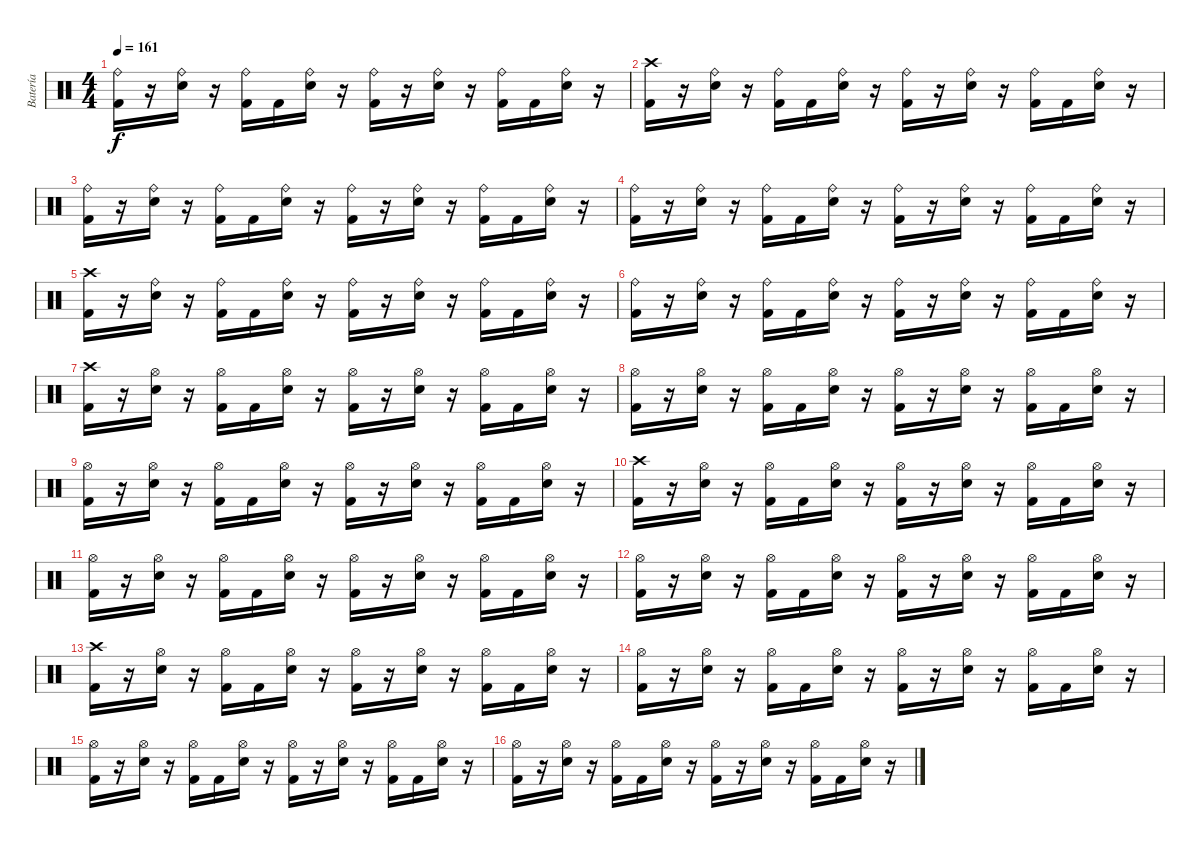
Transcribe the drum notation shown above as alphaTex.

\track ("Batería" "Batería") {instrument percussion}
\staff {score}
\articulation defaults
\ts (4 4)
\tempo 161
\clef neutral
\ks c
("Ride (bell)" "Kick (hit) 2").16{dy f} r.16 ("Ride (bell)" "Electric Snare (hit)").16 r.16 ("Ride (bell)" "Kick (hit) 2").16 "Kick (hit) 2".16 ("Ride (bell)" "Electric Snare (hit)").16 r.16 ("Ride (bell)" "Kick (hit) 2").16 r.16 ("Ride (bell)" "Electric Snare (hit)").16 r.16 ("Ride (bell)" "Kick (hit) 2").16 "Kick (hit) 2".16 ("Ride (bell)" "Electric Snare (hit)").16 r.16 |
("Crash high (hit)" "Kick (hit) 2").16 r.16 ("Ride (bell)" "Electric Snare (hit)").16 r.16 ("Ride (bell)" "Kick (hit) 2").16 "Kick (hit) 2".16 ("Ride (bell)" "Electric Snare (hit)").16 r.16 ("Ride (bell)" "Kick (hit) 2").16 r.16 ("Ride (bell)" "Electric Snare (hit)").16 r.16 ("Ride (bell)" "Kick (hit) 2").16 "Kick (hit) 2".16 ("Ride (bell)" "Electric Snare (hit)").16 r.16 |
("Ride (bell)" "Kick (hit) 2").16 r.16 ("Ride (bell)" "Electric Snare (hit)").16 r.16 ("Ride (bell)" "Kick (hit) 2").16 "Kick (hit) 2".16 ("Ride (bell)" "Electric Snare (hit)").16 r.16 ("Ride (bell)" "Kick (hit) 2").16 r.16 ("Ride (bell)" "Electric Snare (hit)").16 r.16 ("Ride (bell)" "Kick (hit) 2").16 "Kick (hit) 2".16 ("Ride (bell)" "Electric Snare (hit)").16 r.16 |
("Ride (bell)" "Kick (hit) 2").16 r.16 ("Ride (bell)" "Electric Snare (hit)").16 r.16 ("Ride (bell)" "Kick (hit) 2").16 "Kick (hit) 2".16 ("Ride (bell)" "Electric Snare (hit)").16 r.16 ("Ride (bell)" "Kick (hit) 2").16 r.16 ("Ride (bell)" "Electric Snare (hit)").16 r.16 ("Ride (bell)" "Kick (hit) 2").16 "Kick (hit) 2".16 ("Ride (bell)" "Electric Snare (hit)").16 r.16 |
("Crash high (hit)" "Kick (hit) 2").16 r.16 ("Ride (bell)" "Electric Snare (hit)").16 r.16 ("Ride (bell)" "Kick (hit) 2").16 "Kick (hit) 2".16 ("Ride (bell)" "Electric Snare (hit)").16 r.16 ("Ride (bell)" "Kick (hit) 2").16 r.16 ("Ride (bell)" "Electric Snare (hit)").16 r.16 ("Ride (bell)" "Kick (hit) 2").16 "Kick (hit) 2".16 ("Ride (bell)" "Electric Snare (hit)").16 r.16 |
("Ride (bell)" "Kick (hit) 2").16 r.16 ("Ride (bell)" "Electric Snare (hit)").16 r.16 ("Ride (bell)" "Kick (hit) 2").16 "Kick (hit) 2".16 ("Ride (bell)" "Electric Snare (hit)").16 r.16 ("Ride (bell)" "Kick (hit) 2").16 r.16 ("Ride (bell)" "Electric Snare (hit)").16 r.16 ("Ride (bell)" "Kick (hit) 2").16 "Kick (hit) 2".16 ("Ride (bell)" "Electric Snare (hit)").16 r.16 |
("Crash high (hit)" "Kick (hit) 2").16 r.16 ("Hi-Hat (open)" "Electric Snare (hit)").16 r.16 ("Hi-Hat (open)" "Kick (hit) 2").16 "Kick (hit) 2".16 ("Hi-Hat (open)" "Electric Snare (hit)").16 r.16 ("Hi-Hat (open)" "Kick (hit) 2").16 r.16 ("Hi-Hat (open)" "Electric Snare (hit)").16 r.16 ("Hi-Hat (open)" "Kick (hit) 2").16 "Kick (hit) 2".16 ("Hi-Hat (open)" "Electric Snare (hit)").16 r.16 |
("Hi-Hat (open)" "Kick (hit) 2").16 r.16 ("Hi-Hat (open)" "Electric Snare (hit)").16 r.16 ("Hi-Hat (open)" "Kick (hit) 2").16 "Kick (hit) 2".16 ("Hi-Hat (open)" "Electric Snare (hit)").16 r.16 ("Hi-Hat (open)" "Kick (hit) 2").16 r.16 ("Hi-Hat (open)" "Electric Snare (hit)").16 r.16 ("Hi-Hat (open)" "Kick (hit) 2").16 "Kick (hit) 2".16 ("Hi-Hat (open)" "Electric Snare (hit)").16 r.16 |
("Hi-Hat (open)" "Kick (hit) 2").16 r.16 ("Hi-Hat (open)" "Electric Snare (hit)").16 r.16 ("Hi-Hat (open)" "Kick (hit) 2").16 "Kick (hit) 2".16 ("Hi-Hat (open)" "Electric Snare (hit)").16 r.16 ("Hi-Hat (open)" "Kick (hit) 2").16 r.16 ("Hi-Hat (open)" "Electric Snare (hit)").16 r.16 ("Hi-Hat (open)" "Kick (hit) 2").16 "Kick (hit) 2".16 ("Hi-Hat (open)" "Electric Snare (hit)").16 r.16 |
("Crash high (hit)" "Kick (hit) 2").16 r.16 ("Hi-Hat (open)" "Electric Snare (hit)").16 r.16 ("Hi-Hat (open)" "Kick (hit) 2").16 "Kick (hit) 2".16 ("Hi-Hat (open)" "Electric Snare (hit)").16 r.16 ("Hi-Hat (open)" "Kick (hit) 2").16 r.16 ("Hi-Hat (open)" "Electric Snare (hit)").16 r.16 ("Hi-Hat (open)" "Kick (hit) 2").16 "Kick (hit) 2".16 ("Hi-Hat (open)" "Electric Snare (hit)").16 r.16 |
("Hi-Hat (open)" "Kick (hit) 2").16 r.16 ("Hi-Hat (open)" "Electric Snare (hit)").16 r.16 ("Hi-Hat (open)" "Kick (hit) 2").16 "Kick (hit) 2".16 ("Hi-Hat (open)" "Electric Snare (hit)").16 r.16 ("Hi-Hat (open)" "Kick (hit) 2").16 r.16 ("Hi-Hat (open)" "Electric Snare (hit)").16 r.16 ("Hi-Hat (open)" "Kick (hit) 2").16 "Kick (hit) 2".16 ("Hi-Hat (open)" "Electric Snare (hit)").16 r.16 |
("Hi-Hat (open)" "Kick (hit) 2").16 r.16 ("Hi-Hat (open)" "Electric Snare (hit)").16 r.16 ("Hi-Hat (open)" "Kick (hit) 2").16 "Kick (hit) 2".16 ("Hi-Hat (open)" "Electric Snare (hit)").16 r.16 ("Hi-Hat (open)" "Kick (hit) 2").16 r.16 ("Hi-Hat (open)" "Electric Snare (hit)").16 r.16 ("Hi-Hat (open)" "Kick (hit) 2").16 "Kick (hit) 2".16 ("Hi-Hat (open)" "Electric Snare (hit)").16 r.16 |
("Crash high (hit)" "Kick (hit) 2").16 r.16 ("Hi-Hat (open)" "Electric Snare (hit)").16 r.16 ("Hi-Hat (open)" "Kick (hit) 2").16 "Kick (hit) 2".16 ("Hi-Hat (open)" "Electric Snare (hit)").16 r.16 ("Hi-Hat (open)" "Kick (hit) 2").16 r.16 ("Hi-Hat (open)" "Electric Snare (hit)").16 r.16 ("Hi-Hat (open)" "Kick (hit) 2").16 "Kick (hit) 2".16 ("Hi-Hat (open)" "Electric Snare (hit)").16 r.16 |
("Hi-Hat (open)" "Kick (hit) 2").16 r.16 ("Hi-Hat (open)" "Electric Snare (hit)").16 r.16 ("Hi-Hat (open)" "Kick (hit) 2").16 "Kick (hit) 2".16 ("Hi-Hat (open)" "Electric Snare (hit)").16 r.16 ("Hi-Hat (open)" "Kick (hit) 2").16 r.16 ("Hi-Hat (open)" "Electric Snare (hit)").16 r.16 ("Hi-Hat (open)" "Kick (hit) 2").16 "Kick (hit) 2".16 ("Hi-Hat (open)" "Electric Snare (hit)").16 r.16 |
("Hi-Hat (open)" "Kick (hit) 2").16 r.16 ("Hi-Hat (open)" "Electric Snare (hit)").16 r.16 ("Hi-Hat (open)" "Kick (hit) 2").16 "Kick (hit) 2".16 ("Hi-Hat (open)" "Electric Snare (hit)").16 r.16 ("Hi-Hat (open)" "Kick (hit) 2").16 r.16 ("Hi-Hat (open)" "Electric Snare (hit)").16 r.16 ("Hi-Hat (open)" "Kick (hit) 2").16 "Kick (hit) 2".16 ("Hi-Hat (open)" "Electric Snare (hit)").16 r.16 |
("Hi-Hat (open)" "Kick (hit) 2").16 r.16 ("Hi-Hat (open)" "Electric Snare (hit)").16 r.16 ("Hi-Hat (open)" "Kick (hit) 2").16 "Kick (hit) 2".16 ("Hi-Hat (open)" "Electric Snare (hit)").16 r.16 ("Hi-Hat (open)" "Kick (hit) 2").16 r.16 ("Hi-Hat (open)" "Electric Snare (hit)").16 r.16 ("Hi-Hat (open)" "Kick (hit) 2").16 "Kick (hit) 2".16 ("Hi-Hat (open)" "Electric Snare (hit)").16 r.16
